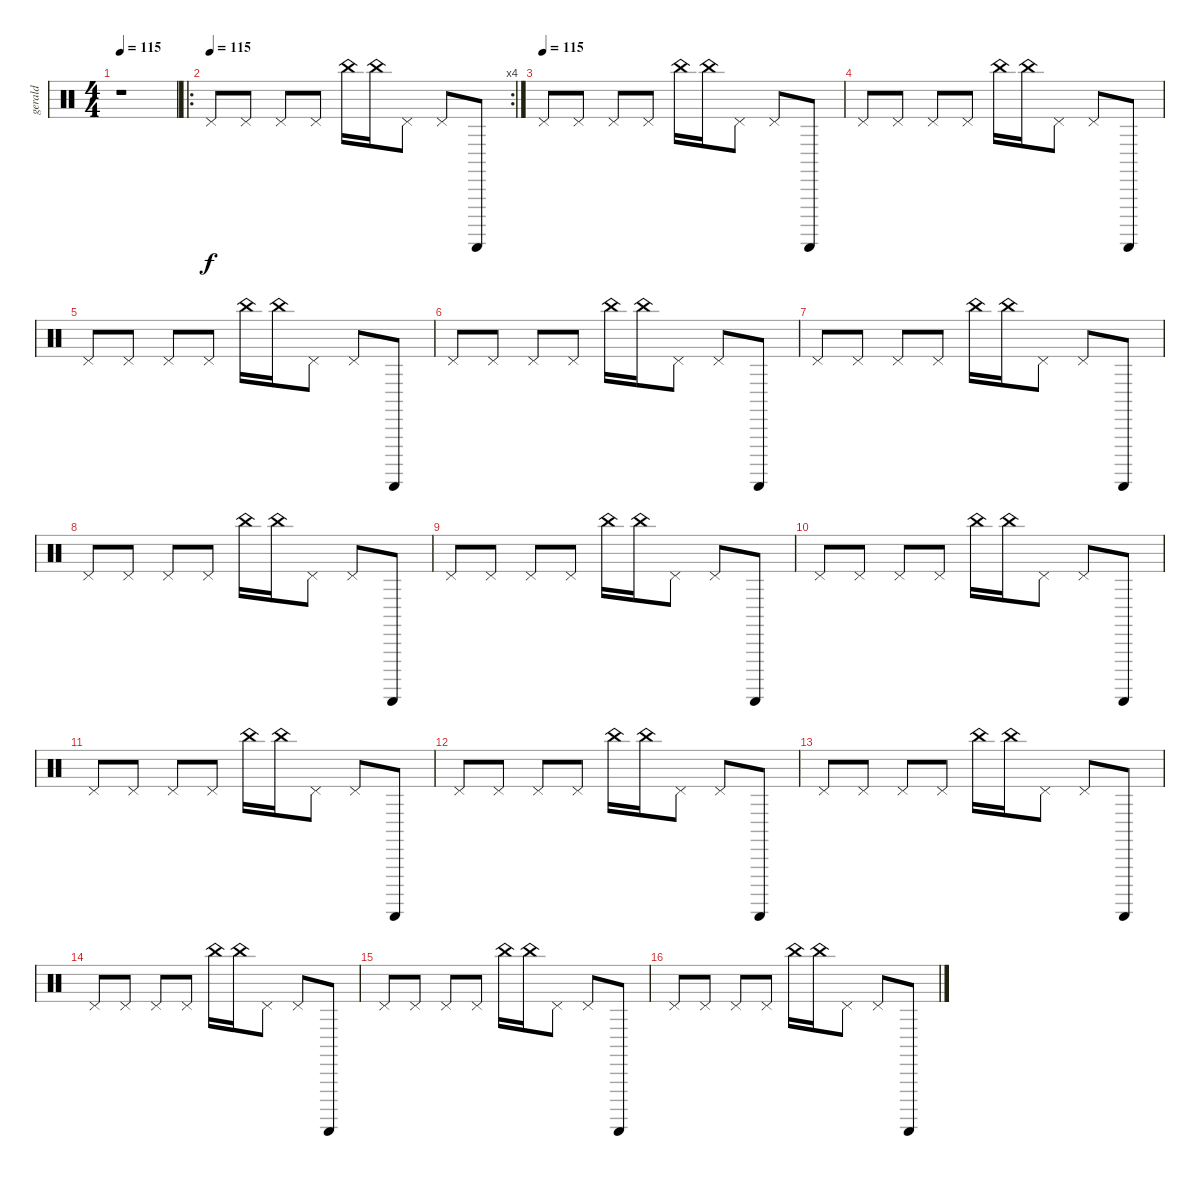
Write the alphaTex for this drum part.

\track ("gerald" "gerald") {instrument percussion}
\staff {score}
\articulation defaults
\ts (4 4)
\tempo 115
\clef neutral
\ks c
r.1{dy f} |
\ro
\rc 4
\tempo (115)
"Pedal Hi-Hat (hit)".8 "Pedal Hi-Hat (hit)".8 "Pedal Hi-Hat (hit)".8 "Pedal Hi-Hat (hit)".8 "China (hit)".16 "China (hit)".16 "Pedal Hi-Hat (hit)".8 "Pedal Hi-Hat (hit)".8 "Guiro (scrap-return)".8 |
\tempo (115)
"Pedal Hi-Hat (hit)".8 "Pedal Hi-Hat (hit)".8 "Pedal Hi-Hat (hit)".8 "Pedal Hi-Hat (hit)".8 "China (hit)".16 "China (hit)".16 "Pedal Hi-Hat (hit)".8 "Pedal Hi-Hat (hit)".8 "Guiro (scrap-return)".8 |
"Pedal Hi-Hat (hit)".8 "Pedal Hi-Hat (hit)".8 "Pedal Hi-Hat (hit)".8 "Pedal Hi-Hat (hit)".8 "China (hit)".16 "China (hit)".16 "Pedal Hi-Hat (hit)".8 "Pedal Hi-Hat (hit)".8 "Guiro (scrap-return)".8 |
"Pedal Hi-Hat (hit)".8 "Pedal Hi-Hat (hit)".8 "Pedal Hi-Hat (hit)".8 "Pedal Hi-Hat (hit)".8 "China (hit)".16 "China (hit)".16 "Pedal Hi-Hat (hit)".8 "Pedal Hi-Hat (hit)".8 "Guiro (scrap-return)".8 |
"Pedal Hi-Hat (hit)".8 "Pedal Hi-Hat (hit)".8 "Pedal Hi-Hat (hit)".8 "Pedal Hi-Hat (hit)".8 "China (hit)".16 "China (hit)".16 "Pedal Hi-Hat (hit)".8 "Pedal Hi-Hat (hit)".8 "Guiro (scrap-return)".8 |
"Pedal Hi-Hat (hit)".8 "Pedal Hi-Hat (hit)".8 "Pedal Hi-Hat (hit)".8 "Pedal Hi-Hat (hit)".8 "China (hit)".16 "China (hit)".16 "Pedal Hi-Hat (hit)".8 "Pedal Hi-Hat (hit)".8 "Guiro (scrap-return)".8 |
"Pedal Hi-Hat (hit)".8 "Pedal Hi-Hat (hit)".8 "Pedal Hi-Hat (hit)".8 "Pedal Hi-Hat (hit)".8 "China (hit)".16 "China (hit)".16 "Pedal Hi-Hat (hit)".8 "Pedal Hi-Hat (hit)".8 "Guiro (scrap-return)".8 |
"Pedal Hi-Hat (hit)".8 "Pedal Hi-Hat (hit)".8 "Pedal Hi-Hat (hit)".8 "Pedal Hi-Hat (hit)".8 "China (hit)".16 "China (hit)".16 "Pedal Hi-Hat (hit)".8 "Pedal Hi-Hat (hit)".8 "Guiro (scrap-return)".8 |
"Pedal Hi-Hat (hit)".8 "Pedal Hi-Hat (hit)".8 "Pedal Hi-Hat (hit)".8 "Pedal Hi-Hat (hit)".8 "China (hit)".16 "China (hit)".16 "Pedal Hi-Hat (hit)".8 "Pedal Hi-Hat (hit)".8 "Guiro (scrap-return)".8 |
"Pedal Hi-Hat (hit)".8 "Pedal Hi-Hat (hit)".8 "Pedal Hi-Hat (hit)".8 "Pedal Hi-Hat (hit)".8 "China (hit)".16 "China (hit)".16 "Pedal Hi-Hat (hit)".8 "Pedal Hi-Hat (hit)".8 "Guiro (scrap-return)".8 |
"Pedal Hi-Hat (hit)".8 "Pedal Hi-Hat (hit)".8 "Pedal Hi-Hat (hit)".8 "Pedal Hi-Hat (hit)".8 "China (hit)".16 "China (hit)".16 "Pedal Hi-Hat (hit)".8 "Pedal Hi-Hat (hit)".8 "Guiro (scrap-return)".8 |
"Pedal Hi-Hat (hit)".8 "Pedal Hi-Hat (hit)".8 "Pedal Hi-Hat (hit)".8 "Pedal Hi-Hat (hit)".8 "China (hit)".16 "China (hit)".16 "Pedal Hi-Hat (hit)".8 "Pedal Hi-Hat (hit)".8 "Guiro (scrap-return)".8 |
"Pedal Hi-Hat (hit)".8 "Pedal Hi-Hat (hit)".8 "Pedal Hi-Hat (hit)".8 "Pedal Hi-Hat (hit)".8 "China (hit)".16 "China (hit)".16 "Pedal Hi-Hat (hit)".8 "Pedal Hi-Hat (hit)".8 "Guiro (scrap-return)".8 |
"Pedal Hi-Hat (hit)".8 "Pedal Hi-Hat (hit)".8 "Pedal Hi-Hat (hit)".8 "Pedal Hi-Hat (hit)".8 "China (hit)".16 "China (hit)".16 "Pedal Hi-Hat (hit)".8 "Pedal Hi-Hat (hit)".8 "Guiro (scrap-return)".8 |
"Pedal Hi-Hat (hit)".8 "Pedal Hi-Hat (hit)".8 "Pedal Hi-Hat (hit)".8 "Pedal Hi-Hat (hit)".8 "China (hit)".16 "China (hit)".16 "Pedal Hi-Hat (hit)".8 "Pedal Hi-Hat (hit)".8 "Guiro (scrap-return)".8
